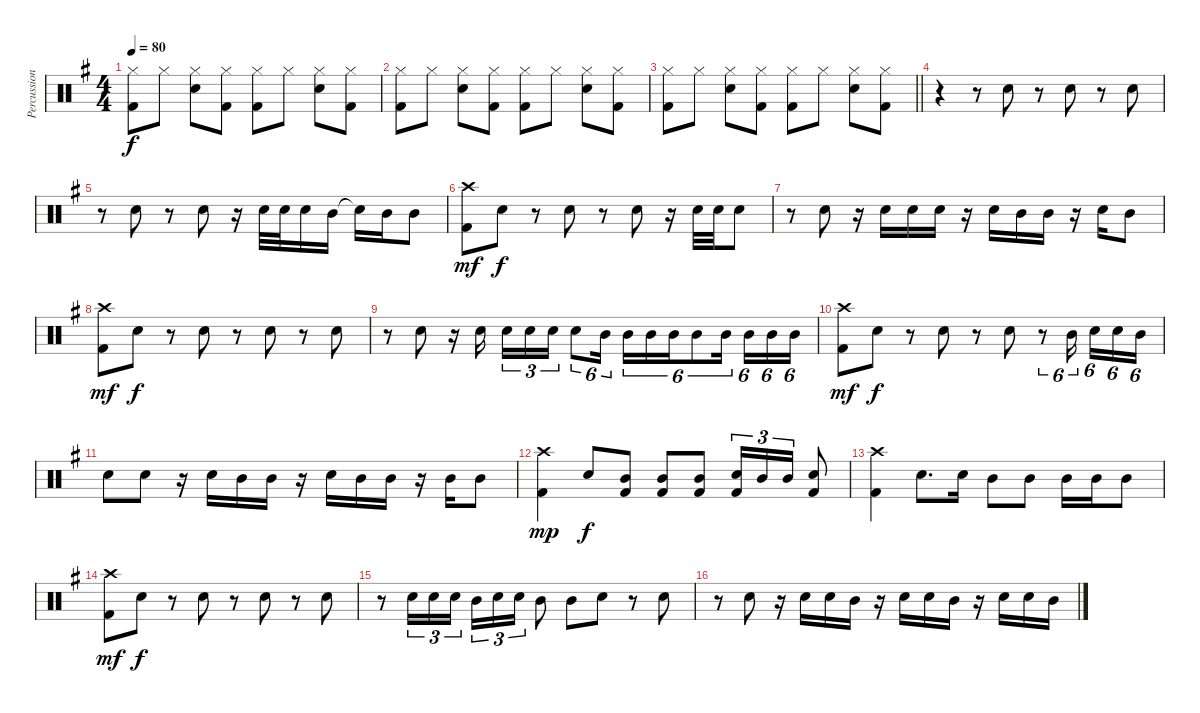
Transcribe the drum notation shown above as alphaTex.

\track ("Percussion" "Percussion") {instrument percussion}
\staff {score}
\articulation defaults
\ts (4 4)
\tempo 80
\clef neutral
\ks g
("Hi-Hat (closed)" "Kick (hit) 2").8{dy f} "Hi-Hat (closed)".8 ("Hi-Hat (closed)" "Snare (hit) 2").8 ("Hi-Hat (closed)" "Kick (hit) 2").8 ("Hi-Hat (closed)" "Kick (hit) 2").8 "Hi-Hat (closed)".8 ("Hi-Hat (closed)" "Snare (hit) 2").8 ("Hi-Hat (closed)" "Kick (hit) 2").8 |
("Hi-Hat (closed)" "Kick (hit) 2").8 "Hi-Hat (closed)".8 ("Hi-Hat (closed)" "Snare (hit) 2").8 ("Hi-Hat (closed)" "Kick (hit) 2").8 ("Hi-Hat (closed)" "Kick (hit) 2").8 "Hi-Hat (closed)".8 ("Hi-Hat (closed)" "Snare (hit) 2").8 ("Hi-Hat (closed)" "Kick (hit) 2").8 |
\barLineRight lightlight
("Hi-Hat (closed)" "Kick (hit) 2").8 "Hi-Hat (closed)".8 ("Hi-Hat (closed)" "Snare (hit) 2").8 ("Hi-Hat (closed)" "Kick (hit) 2").8 ("Hi-Hat (closed)" "Kick (hit) 2").8 "Hi-Hat (closed)".8 ("Hi-Hat (closed)" "Snare (hit) 2").8 ("Hi-Hat (closed)" "Kick (hit) 2").8 |
r.4 r.8 "Snare (hit) 2".8 r.8 "Snare (hit) 2".8 r.8 "Snare (hit) 2".8 |
r.8 "Snare (hit) 2".8 r.8 "Snare (hit) 2".8 r.16 "Snare (hit) 2".32 "Snare (hit) 2".32 "Snare (hit) 2".16 "Mid Tom (hit)".16 "Snare (hit)"{t}.16 "Mid Tom (hit)".16 "Mid Tom (hit)".8 |
("Crash high (hit)" "Kick (hit) 2").8{dy mf} "Snare (hit) 2".8{dy f} r.8 "Snare (hit) 2".8 r.8 "Snare (hit) 2".8 r.16 "Snare (hit) 2".32 "Snare (hit) 2".32 "Snare (hit) 2".8 |
r.8 "Snare (hit) 2".8 r.16 "Snare (hit) 2".16 "Snare (hit) 2".16 "Snare (hit) 2".16 r.16 "Snare (hit) 2".16 "Mid Tom (hit)".16 "Mid Tom (hit)".16 r.16 "Snare (hit) 2".16 "Mid Tom (hit)".8 |
("Crash high (hit)" "Kick (hit) 2").8{dy mf} "Snare (hit) 2".8{dy f} r.8 "Snare (hit) 2".8 r.8 "Snare (hit) 2".8 r.8 "Snare (hit) 2".8 |
r.8 "Snare (hit) 2".8 r.16 "Snare (hit) 2".16{beam splitsecondary} "Snare (hit) 2".16{tu (3 2)} "Snare (hit) 2".16{tu (3 2)} "Snare (hit) 2".16{tu (3 2)} "Snare (hit) 2".8{tu (6 4)} "Mid Tom (hit)".16{tu (6 4) beam splitsecondary} "Mid Tom (hit)".16{tu (6 4)} "Mid Tom (hit)".16{tu (6 4)} "Mid Tom (hit)".16{tu (6 4)} "Mid Tom (hit)".8{tu (6 4)} "Mid Tom (hit)".16{tu (6 4) beam splitsecondary} "Mid Tom (hit)".16{tu (6 4)} "Mid Tom (hit)".16{tu (6 4)} "Mid Tom (hit)".16{tu (6 4)} |
("Crash high (hit)" "Kick (hit) 2").8{dy mf} "Snare (hit) 2".8{dy f} r.8 "Snare (hit) 2".8 r.8 "Snare (hit) 2".8 r.8{tu (6 4)} "Mid Tom (hit)".16{tu (6 4) beam splitsecondary} "Snare (hit) 2".16{tu (6 4)} "Snare (hit) 2".16{tu (6 4)} "Mid Tom (hit)".16{tu (6 4)} |
"Snare (hit) 2".8 "Snare (hit) 2".8 r.16 "Snare (hit) 2".16 "Mid Tom (hit)".16 "Mid Tom (hit)".16 r.16 "Snare (hit) 2".16 "Mid Tom (hit)".16 "Mid Tom (hit)".16 r.16 "Mid Tom (hit)".16 "Mid Tom (hit)".8 |
("Crash high (hit)" "Kick (hit) 2").4{dy mp} "Snare (hit) 2".8{dy f} ("Mid Tom (hit)" "Kick (hit) 2").8 ("Mid Tom (hit)" "Kick (hit) 2").8 ("Mid Tom (hit)" "Kick (hit) 2").8 ("Snare (hit) 2" "Kick (hit) 2").16{tu (3 2)} "Mid Tom (hit)".16{tu (3 2)} "Mid Tom (hit)".16{tu (3 2)} ("Snare (hit) 2" "Kick (hit) 2").8 |
("Crash high (hit)" "Kick (hit) 2").4 "Snare (hit) 2".8{d} "Snare (hit) 2".16 "Mid Tom (hit)".8 "Mid Tom (hit)".8 "Mid Tom (hit)".16 "Mid Tom (hit)".16 "Mid Tom (hit)".8 |
("Crash high (hit)" "Kick (hit) 2").8{dy mf} "Snare (hit) 2".8{dy f} r.8 "Snare (hit) 2".8 r.8 "Snare (hit) 2".8 r.8 "Snare (hit) 2".8 |
r.8 "Snare (hit) 2".16{tu (3 2)} "Snare (hit) 2".16{tu (3 2)} "Snare (hit) 2".16{tu (3 2)} "Mid Tom (hit)".16{tu (3 2)} "Snare (hit) 2".16{tu (3 2)} "Snare (hit) 2".16{tu (3 2)} "Mid Tom (hit)".8 "Mid Tom (hit)".8 "Snare (hit) 2".8 r.8 "Snare (hit) 2".8 |
r.8 "Snare (hit) 2".8 r.16 "Snare (hit) 2".16 "Snare (hit) 2".16 "Mid Tom (hit)".16 r.16 "Snare (hit) 2".16 "Snare (hit) 2".16 "Mid Tom (hit)".16 r.16 "Snare (hit) 2".16 "Snare (hit) 2".16 "Mid Tom (hit)".16
